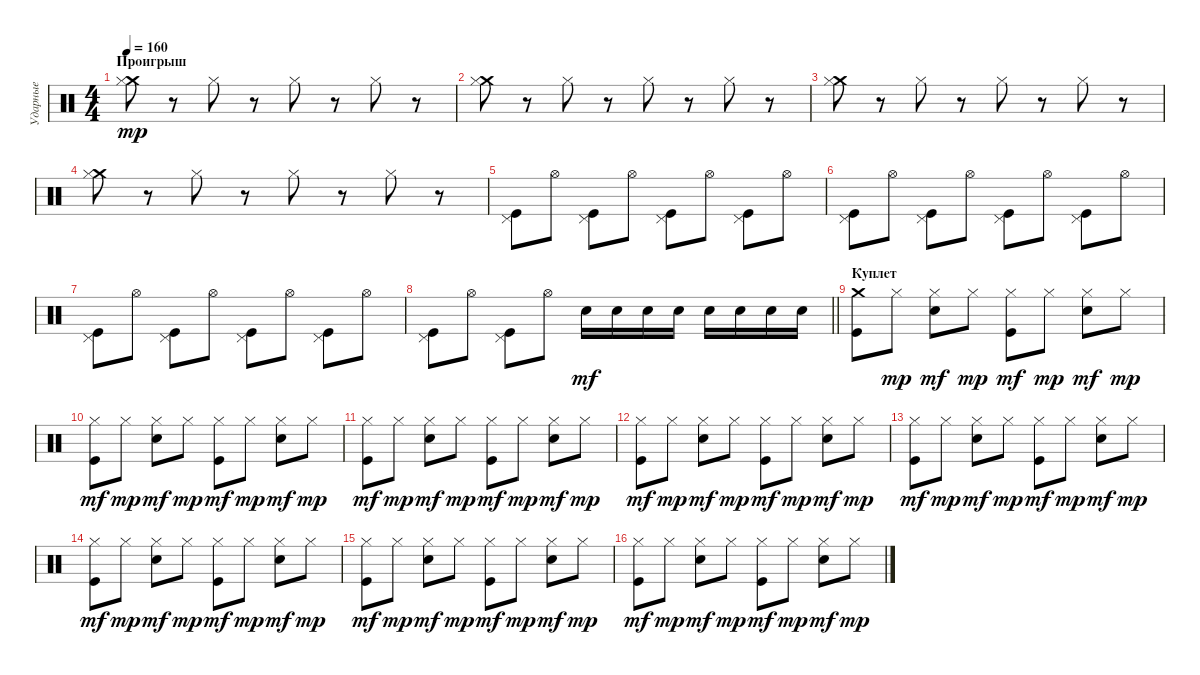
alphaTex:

\track ("Ударные" "Ударные") {instrument percussion}
\staff {score}
\articulation defaults
\ts (4 4)
\section ("" "Проигрыш")
\tempo 160
\clef neutral
\ks c
("Crash medium (hit)" "Hi-Hat (closed)").8{dy mp} r.8 "Hi-Hat (closed)".8 r.8 "Hi-Hat (closed)".8 r.8 "Hi-Hat (closed)".8 r.8 |
("Crash medium (hit)" "Hi-Hat (closed)").8 r.8 "Hi-Hat (closed)".8 r.8 "Hi-Hat (closed)".8 r.8 "Hi-Hat (closed)".8 r.8 |
("Crash medium (hit)" "Hi-Hat (closed)").8 r.8 "Hi-Hat (closed)".8 r.8 "Hi-Hat (closed)".8 r.8 "Hi-Hat (closed)".8 r.8 |
("Crash medium (hit)" "Hi-Hat (closed)").8 r.8 "Hi-Hat (closed)".8 r.8 "Hi-Hat (closed)".8 r.8 "Hi-Hat (closed)".8 r.8 |
("Pedal Hi-Hat (hit)" "Kick (hit)").8 "Hi-Hat (open)".8 ("Pedal Hi-Hat (hit)" "Kick (hit)").8 "Hi-Hat (open)".8 ("Pedal Hi-Hat (hit)" "Kick (hit)").8 "Hi-Hat (open)".8 ("Pedal Hi-Hat (hit)" "Kick (hit)").8 "Hi-Hat (open)".8 |
("Pedal Hi-Hat (hit)" "Kick (hit)").8 "Hi-Hat (open)".8 ("Pedal Hi-Hat (hit)" "Kick (hit)").8 "Hi-Hat (open)".8 ("Pedal Hi-Hat (hit)" "Kick (hit)").8 "Hi-Hat (open)".8 ("Pedal Hi-Hat (hit)" "Kick (hit)").8 "Hi-Hat (open)".8 |
("Pedal Hi-Hat (hit)" "Kick (hit)").8 "Hi-Hat (open)".8 ("Pedal Hi-Hat (hit)" "Kick (hit)").8 "Hi-Hat (open)".8 ("Pedal Hi-Hat (hit)" "Kick (hit)").8 "Hi-Hat (open)".8 ("Pedal Hi-Hat (hit)" "Kick (hit)").8 "Hi-Hat (open)".8 |
\barLineRight lightlight
("Pedal Hi-Hat (hit)" "Kick (hit)").8 "Hi-Hat (open)".8 ("Pedal Hi-Hat (hit)" "Kick (hit)").8 "Hi-Hat (open)".8 "Electric Snare (hit)".16{dy mf} "Electric Snare (hit)".16 "Electric Snare (hit)".16 "Electric Snare (hit)".16 "Electric Snare (hit)".16 "Electric Snare (hit)".16 "Electric Snare (hit)".16 "Electric Snare (hit)".16 |
\section ("" "Куплет")
("Crash medium (hit)" "Kick (hit)").8 "Hi-Hat (closed)".8{dy mp} ("Hi-Hat (closed)" "Electric Snare (hit)").8{dy mf} "Hi-Hat (closed)".8{dy mp} ("Hi-Hat (closed)" "Kick (hit)").8{dy mf} "Hi-Hat (closed)".8{dy mp} ("Hi-Hat (closed)" "Electric Snare (hit)").8{dy mf} "Hi-Hat (closed)".8{dy mp} |
("Hi-Hat (closed)" "Kick (hit)").8{dy mf} "Hi-Hat (closed)".8{dy mp} ("Hi-Hat (closed)" "Electric Snare (hit)").8{dy mf} "Hi-Hat (closed)".8{dy mp} ("Hi-Hat (closed)" "Kick (hit)").8{dy mf} "Hi-Hat (closed)".8{dy mp} ("Hi-Hat (closed)" "Electric Snare (hit)").8{dy mf} "Hi-Hat (closed)".8{dy mp} |
("Hi-Hat (closed)" "Kick (hit)").8{dy mf} "Hi-Hat (closed)".8{dy mp} ("Hi-Hat (closed)" "Electric Snare (hit)").8{dy mf} "Hi-Hat (closed)".8{dy mp} ("Hi-Hat (closed)" "Kick (hit)").8{dy mf} "Hi-Hat (closed)".8{dy mp} ("Hi-Hat (closed)" "Electric Snare (hit)").8{dy mf} "Hi-Hat (closed)".8{dy mp} |
("Hi-Hat (closed)" "Kick (hit)").8{dy mf} "Hi-Hat (closed)".8{dy mp} ("Hi-Hat (closed)" "Electric Snare (hit)").8{dy mf} "Hi-Hat (closed)".8{dy mp} ("Hi-Hat (closed)" "Kick (hit)").8{dy mf} "Hi-Hat (closed)".8{dy mp} ("Hi-Hat (closed)" "Electric Snare (hit)").8{dy mf} "Hi-Hat (closed)".8{dy mp} |
("Hi-Hat (closed)" "Kick (hit)").8{dy mf} "Hi-Hat (closed)".8{dy mp} ("Hi-Hat (closed)" "Electric Snare (hit)").8{dy mf} "Hi-Hat (closed)".8{dy mp} ("Hi-Hat (closed)" "Kick (hit)").8{dy mf} "Hi-Hat (closed)".8{dy mp} ("Hi-Hat (closed)" "Electric Snare (hit)").8{dy mf} "Hi-Hat (closed)".8{dy mp} |
("Hi-Hat (closed)" "Kick (hit)").8{dy mf} "Hi-Hat (closed)".8{dy mp} ("Hi-Hat (closed)" "Electric Snare (hit)").8{dy mf} "Hi-Hat (closed)".8{dy mp} ("Hi-Hat (closed)" "Kick (hit)").8{dy mf} "Hi-Hat (closed)".8{dy mp} ("Hi-Hat (closed)" "Electric Snare (hit)").8{dy mf} "Hi-Hat (closed)".8{dy mp} |
("Hi-Hat (closed)" "Kick (hit)").8{dy mf} "Hi-Hat (closed)".8{dy mp} ("Hi-Hat (closed)" "Electric Snare (hit)").8{dy mf} "Hi-Hat (closed)".8{dy mp} ("Hi-Hat (closed)" "Kick (hit)").8{dy mf} "Hi-Hat (closed)".8{dy mp} ("Hi-Hat (closed)" "Electric Snare (hit)").8{dy mf} "Hi-Hat (closed)".8{dy mp} |
("Hi-Hat (closed)" "Kick (hit)").8{dy mf} "Hi-Hat (closed)".8{dy mp} ("Hi-Hat (closed)" "Electric Snare (hit)").8{dy mf} "Hi-Hat (closed)".8{dy mp} ("Hi-Hat (closed)" "Kick (hit)").8{dy mf} "Hi-Hat (closed)".8{dy mp} ("Hi-Hat (closed)" "Electric Snare (hit)").8{dy mf} "Hi-Hat (closed)".8{dy mp}
